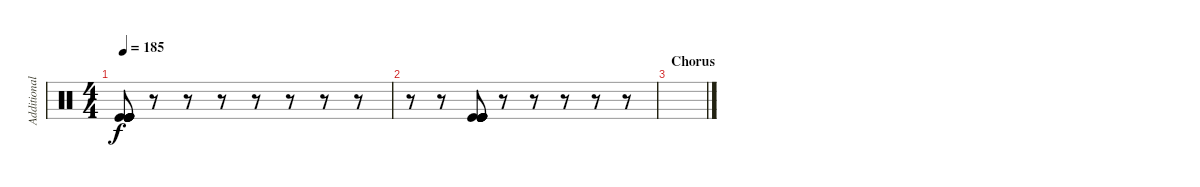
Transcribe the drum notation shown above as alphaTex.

\track ("Additional Bass" "Additional") {instrument percussion}
\staff {score}
\articulation defaults
\ts (4 4)
\tempo 185
\clef neutral
\ks c
("Kick (hit)" "Kick (hit)" "Kick (hit)" "Kick (hit)" "Kick (hit)" "Kick (hit)").8{dy f} r.8 r.8 r.8 r.8 r.8 r.8 r.8 |
r.8 r.8 ("Kick (hit)" "Kick (hit)" "Kick (hit)" "Kick (hit)" "Kick (hit)" "Kick (hit)").8 r.8 r.8 r.8 r.8 r.8 |
\section ("" "Chorus")
